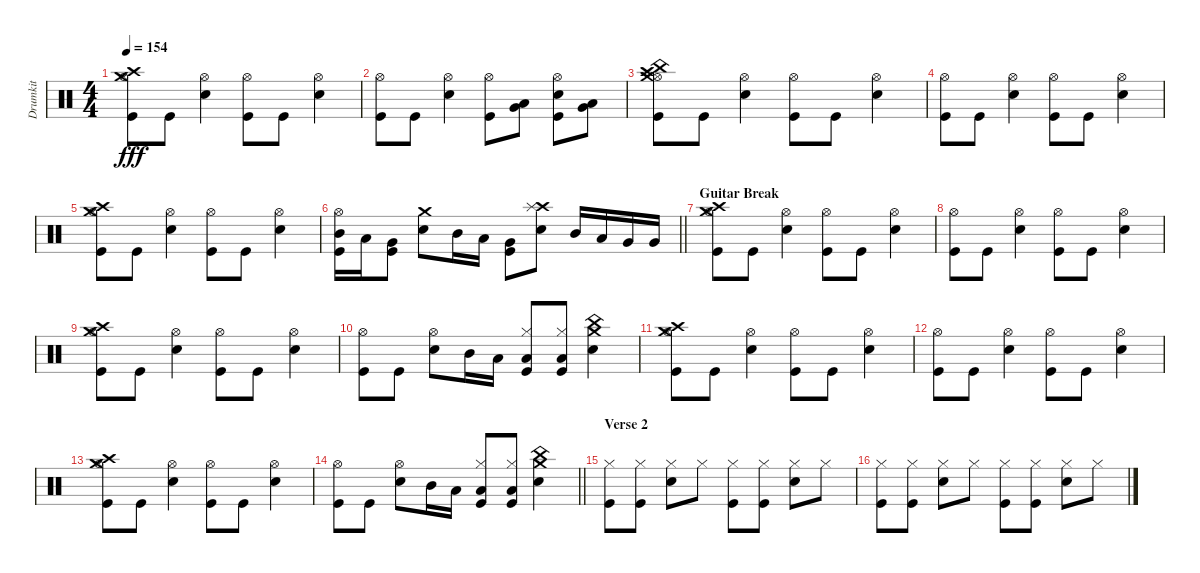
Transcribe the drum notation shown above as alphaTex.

\track ("Drumkit" "Drumkit") {instrument percussion}
\staff {score}
\articulation defaults
\ts (4 4)
\tempo 154
\clef neutral
\ks c
("Crash high (hit)" "Hi-Hat (open)" "Crash medium (hit)" "Kick (hit)").8{dy fff} "Kick (hit)".8 ("Hi-Hat (open)" "Snare (hit) 2").4 ("Hi-Hat (open)" "Kick (hit)").8 "Kick (hit)".8 ("Hi-Hat (open)" "Snare (hit) 2").4 |
("Hi-Hat (open)" "Kick (hit)").8 "Kick (hit)".8 ("Hi-Hat (open)" "Snare (hit) 2").4 ("Hi-Hat (open)" "Kick (hit)").8 ("Very Low Tom (hit)" "Low Tom (hit)").8 ("Hi-Hat (open)" "Snare (hit) 2" "Kick (hit)").8 ("Very Low Tom (hit)" "Low Tom (hit)").8 |
("Crash high (hit)" "Hi-Hat (open)" "Crash medium (hit)" "Kick (hit)" "China (hit)").8 "Kick (hit)".8 ("Hi-Hat (open)" "Snare (hit) 2").4 ("Hi-Hat (open)" "Kick (hit)").8 "Kick (hit)".8 ("Hi-Hat (open)" "Snare (hit) 2").4 |
("Hi-Hat (open)" "Kick (hit)").8 "Kick (hit)".8 ("Hi-Hat (open)" "Snare (hit) 2").4 ("Hi-Hat (open)" "Kick (hit)").8 "Kick (hit)".8 ("Hi-Hat (open)" "Snare (hit) 2").4 |
("Crash high (hit)" "Hi-Hat (open)" "Crash medium (hit)" "Kick (hit)").8 "Kick (hit)".8 ("Hi-Hat (open)" "Snare (hit) 2").4 ("Hi-Hat (open)" "Kick (hit)").8 "Kick (hit)".8 ("Hi-Hat (open)" "Snare (hit) 2").4 |
\barLineRight lightlight
("Hi-Hat (open)" "Mid Tom (hit)" "Kick (hit)").16 "Low Tom (hit)".16 ("Very Low Tom (hit)" "Kick (hit)").8 ("Crash medium (hit)" "Snare (hit) 2").8 "Mid Tom (hit)".16 "Low Tom (hit)".16 ("Very Low Tom (hit)" "Kick (hit)").8 ("Crash high (hit)" "Splash (hit)" "Snare (hit) 2").8 "Mid Tom (hit)".16 "Low Tom (hit)".16 "Very Low Tom (hit)".16 "Very Low Tom (hit)".16 |
\section ("" "Guitar Break")
("Crash high (hit)" "Hi-Hat (open)" "Crash medium (hit)" "Kick (hit)").8 "Kick (hit)".8 ("Hi-Hat (open)" "Snare (hit) 2").4 ("Hi-Hat (open)" "Kick (hit)").8 "Kick (hit)".8 ("Hi-Hat (open)" "Snare (hit) 2").4 |
("Hi-Hat (open)" "Kick (hit)").8 "Kick (hit)".8 ("Hi-Hat (open)" "Snare (hit) 2").4 ("Hi-Hat (open)" "Kick (hit)").8 "Kick (hit)".8 ("Hi-Hat (open)" "Snare (hit) 2").4 |
("Crash high (hit)" "Hi-Hat (open)" "Crash medium (hit)" "Kick (hit)").8 "Kick (hit)".8 ("Hi-Hat (open)" "Snare (hit) 2").4 ("Hi-Hat (open)" "Kick (hit)").8 "Kick (hit)".8 ("Hi-Hat (open)" "Snare (hit) 2").4 |
("Hi-Hat (open)" "Kick (hit)").8 "Kick (hit)".8 ("Hi-Hat (open)" "Snare (hit) 2").8 "Mid Tom (hit)".16 "Low Tom (hit)".16 ("Hi-Hat (closed)" "Low Floor Tom (hit)" "Kick (hit)").8 ("Hi-Hat (closed)" "Low Floor Tom (hit)" "Kick (hit)").8 ("Crash medium (hit)" "China (hit)" "Snare (hit) 2").4 |
("Crash high (hit)" "Hi-Hat (open)" "Crash medium (hit)" "Kick (hit)").8 "Kick (hit)".8 ("Hi-Hat (open)" "Snare (hit) 2").4 ("Hi-Hat (open)" "Kick (hit)").8 "Kick (hit)".8 ("Hi-Hat (open)" "Snare (hit) 2").4 |
("Hi-Hat (open)" "Kick (hit)").8 "Kick (hit)".8 ("Hi-Hat (open)" "Snare (hit) 2").4 ("Hi-Hat (open)" "Kick (hit)").8 "Kick (hit)".8 ("Hi-Hat (open)" "Snare (hit) 2").4 |
("Crash high (hit)" "Hi-Hat (open)" "Crash medium (hit)" "Kick (hit)").8 "Kick (hit)".8 ("Hi-Hat (open)" "Snare (hit) 2").4 ("Hi-Hat (open)" "Kick (hit)").8 "Kick (hit)".8 ("Hi-Hat (open)" "Snare (hit) 2").4 |
\barLineRight lightlight
("Hi-Hat (open)" "Kick (hit)").8 "Kick (hit)".8 ("Hi-Hat (open)" "Snare (hit) 2").8 "Mid Tom (hit)".16 "Low Tom (hit)".16 ("Hi-Hat (closed)" "Low Floor Tom (hit)" "Kick (hit)").8 ("Hi-Hat (closed)" "Low Floor Tom (hit)" "Kick (hit)").8 ("Crash medium (hit)" "China (hit)" "Snare (hit) 2").4 |
\section ("" "Verse 2 ")
("Hi-Hat (closed)" "Kick (hit)").8 ("Hi-Hat (closed)" "Kick (hit)").8 ("Hi-Hat (closed)" "Snare (hit) 2").8 "Hi-Hat (closed)".8 ("Hi-Hat (closed)" "Kick (hit)").8 ("Hi-Hat (closed)" "Kick (hit)").8 ("Hi-Hat (closed)" "Snare (hit) 2").8 "Hi-Hat (closed)".8 |
("Hi-Hat (closed)" "Kick (hit)").8 ("Hi-Hat (closed)" "Kick (hit)").8 ("Hi-Hat (closed)" "Snare (hit) 2").8 "Hi-Hat (closed)".8 ("Hi-Hat (closed)" "Kick (hit)").8 ("Hi-Hat (closed)" "Kick (hit)").8 ("Hi-Hat (closed)" "Snare (hit) 2").8 "Hi-Hat (closed)".8
